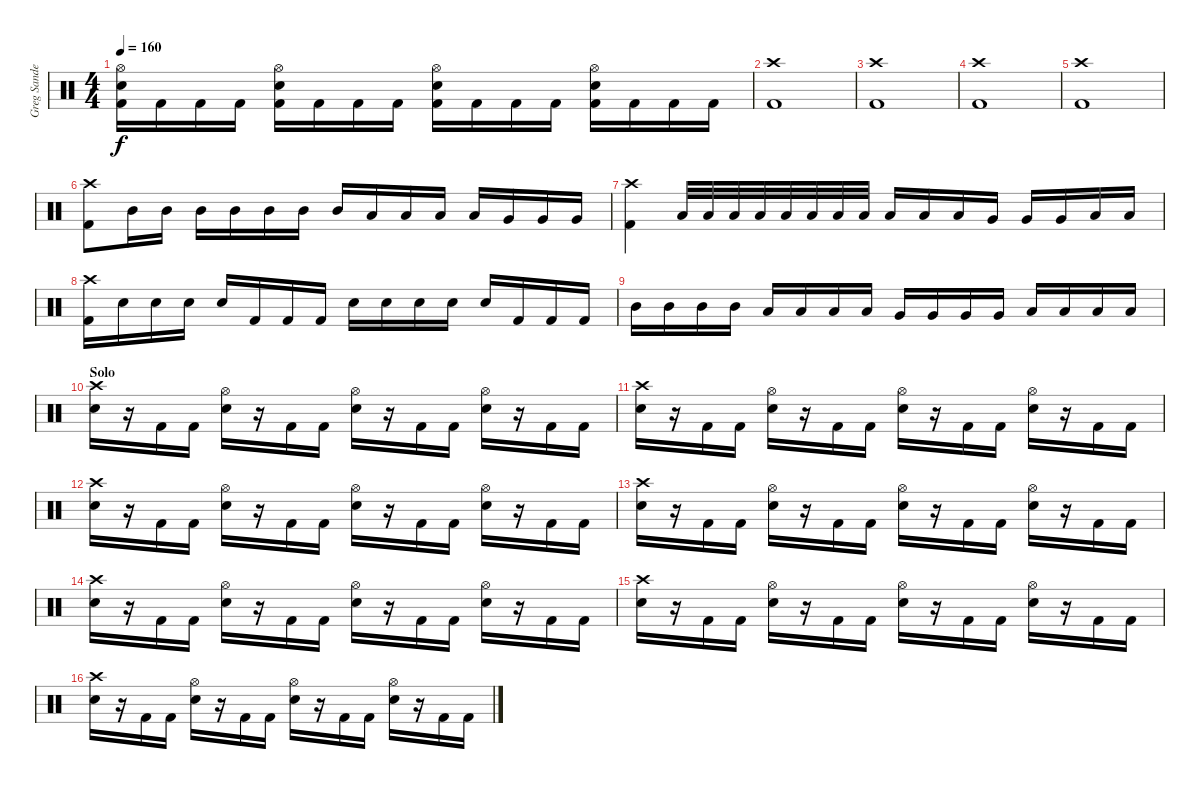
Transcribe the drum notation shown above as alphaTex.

\track ("Greg Sanderson" "Greg Sande") {instrument percussion}
\staff {score}
\articulation defaults
\ts (4 4)
\tempo 160
\clef neutral
\ks c
("Hi-Hat (open)" "Snare (hit) 2" "Kick (hit) 2").16{dy f} "Kick (hit) 2".16 "Kick (hit) 2".16 "Kick (hit) 2".16 ("Hi-Hat (open)" "Snare (hit) 2" "Kick (hit) 2").16 "Kick (hit) 2".16 "Kick (hit) 2".16 "Kick (hit) 2".16 ("Hi-Hat (open)" "Snare (hit) 2" "Kick (hit) 2").16 "Kick (hit) 2".16 "Kick (hit) 2".16 "Kick (hit) 2".16 ("Hi-Hat (open)" "Snare (hit) 2" "Kick (hit) 2").16 "Kick (hit) 2".16 "Kick (hit) 2".16 "Kick (hit) 2".16 |
("Crash high (hit)" "Kick (hit) 2").1 |
("Crash high (hit)" "Kick (hit) 2").1 |
("Crash high (hit)" "Kick (hit) 2").1 |
("Crash high (hit)" "Kick (hit) 2").1 |
("Crash high (hit)" "Kick (hit) 2").8 "Mid Tom (hit)".16 "Mid Tom (hit)".16 "Mid Tom (hit)".16 "Mid Tom (hit)".16 "Mid Tom (hit)".16 "Mid Tom (hit)".16 "Mid Tom (hit)".16 "Low Tom (hit)".16 "Low Tom (hit)".16 "Low Tom (hit)".16 "Low Tom (hit)".16 "Very Low Tom (hit)".16 "Very Low Tom (hit)".16 "Very Low Tom (hit)".16 |
("Crash high (hit)" "Kick (hit) 2").4 "Low Tom (hit)".32 "Low Tom (hit)".32 "Low Tom (hit)".32 "Low Tom (hit)".32 "Low Tom (hit)".32 "Low Tom (hit)".32 "Low Tom (hit)".32 "Low Tom (hit)".32 "Low Tom (hit)".16 "Low Tom (hit)".16 "Low Tom (hit)".16 "Very Low Tom (hit)".16 "Very Low Tom (hit)".16 "Very Low Tom (hit)".16 "Low Floor Tom (hit)".16 "Low Floor Tom (hit)".16 |
("Crash high (hit)" "Kick (hit) 2").16 "Snare (hit) 2".16 "Snare (hit) 2".16 "Snare (hit) 2".16 "Snare (hit) 2".16 "Kick (hit) 2".16 "Kick (hit) 2".16 "Kick (hit) 2".16 "Snare (hit) 2".16 "Snare (hit) 2".16 "Snare (hit) 2".16 "Snare (hit) 2".16 "Snare (hit) 2".16 "Kick (hit) 2".16 "Kick (hit) 2".16 "Kick (hit) 2".16 |
"Mid Tom (hit)".16 "Mid Tom (hit)".16 "Mid Tom (hit)".16 "Mid Tom (hit)".16 "Low Tom (hit)".16 "Low Tom (hit)".16 "Low Tom (hit)".16 "Low Tom (hit)".16 "Very Low Tom (hit)".16 "Very Low Tom (hit)".16 "Very Low Tom (hit)".16 "Very Low Tom (hit)".16 "Low Floor Tom (hit)".16 "Low Floor Tom (hit)".16 "Low Floor Tom (hit)".16 "Low Floor Tom (hit)".16 |
\section ("" "Solo")
("Crash high (hit)" "Snare (hit) 2").16 r.16 "Kick (hit) 2".16 "Kick (hit) 2".16 ("Hi-Hat (open)" "Snare (hit) 2").16 r.16 "Kick (hit) 2".16 "Kick (hit) 2".16 ("Hi-Hat (open)" "Snare (hit) 2").16 r.16 "Kick (hit) 2".16 "Kick (hit) 2".16 ("Hi-Hat (open)" "Snare (hit) 2").16 r.16 "Kick (hit) 2".16 "Kick (hit) 2".16 |
("Crash high (hit)" "Snare (hit) 2").16 r.16 "Kick (hit) 2".16 "Kick (hit) 2".16 ("Hi-Hat (open)" "Snare (hit) 2").16 r.16 "Kick (hit) 2".16 "Kick (hit) 2".16 ("Hi-Hat (open)" "Snare (hit) 2").16 r.16 "Kick (hit) 2".16 "Kick (hit) 2".16 ("Hi-Hat (open)" "Snare (hit) 2").16 r.16 "Kick (hit) 2".16 "Kick (hit) 2".16 |
("Crash high (hit)" "Snare (hit) 2").16 r.16 "Kick (hit) 2".16 "Kick (hit) 2".16 ("Hi-Hat (open)" "Snare (hit) 2").16 r.16 "Kick (hit) 2".16 "Kick (hit) 2".16 ("Hi-Hat (open)" "Snare (hit) 2").16 r.16 "Kick (hit) 2".16 "Kick (hit) 2".16 ("Hi-Hat (open)" "Snare (hit) 2").16 r.16 "Kick (hit) 2".16 "Kick (hit) 2".16 |
("Crash high (hit)" "Snare (hit) 2").16 r.16 "Kick (hit) 2".16 "Kick (hit) 2".16 ("Hi-Hat (open)" "Snare (hit) 2").16 r.16 "Kick (hit) 2".16 "Kick (hit) 2".16 ("Hi-Hat (open)" "Snare (hit) 2").16 r.16 "Kick (hit) 2".16 "Kick (hit) 2".16 ("Hi-Hat (open)" "Snare (hit) 2").16 r.16 "Kick (hit) 2".16 "Kick (hit) 2".16 |
("Crash high (hit)" "Snare (hit) 2").16 r.16 "Kick (hit) 2".16 "Kick (hit) 2".16 ("Hi-Hat (open)" "Snare (hit) 2").16 r.16 "Kick (hit) 2".16 "Kick (hit) 2".16 ("Hi-Hat (open)" "Snare (hit) 2").16 r.16 "Kick (hit) 2".16 "Kick (hit) 2".16 ("Hi-Hat (open)" "Snare (hit) 2").16 r.16 "Kick (hit) 2".16 "Kick (hit) 2".16 |
("Crash high (hit)" "Snare (hit) 2").16 r.16 "Kick (hit) 2".16 "Kick (hit) 2".16 ("Hi-Hat (open)" "Snare (hit) 2").16 r.16 "Kick (hit) 2".16 "Kick (hit) 2".16 ("Hi-Hat (open)" "Snare (hit) 2").16 r.16 "Kick (hit) 2".16 "Kick (hit) 2".16 ("Hi-Hat (open)" "Snare (hit) 2").16 r.16 "Kick (hit) 2".16 "Kick (hit) 2".16 |
("Crash high (hit)" "Snare (hit) 2").16 r.16 "Kick (hit) 2".16 "Kick (hit) 2".16 ("Hi-Hat (open)" "Snare (hit) 2").16 r.16 "Kick (hit) 2".16 "Kick (hit) 2".16 ("Hi-Hat (open)" "Snare (hit) 2").16 r.16 "Kick (hit) 2".16 "Kick (hit) 2".16 ("Hi-Hat (open)" "Snare (hit) 2").16 r.16 "Kick (hit) 2".16 "Kick (hit) 2".16
